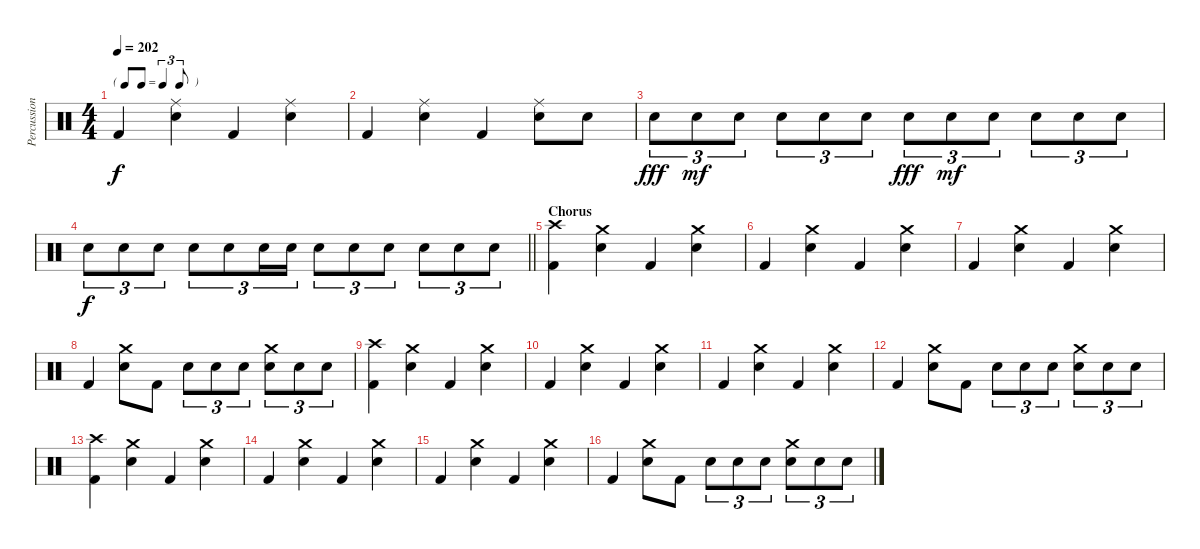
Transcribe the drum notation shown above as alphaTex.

\track ("Percussion" "Percussion") {instrument percussion}
\staff {score}
\articulation defaults
\ts (4 4)
\tf triplet8th
\tempo 202
\clef neutral
\ks c "Kick (hit) 2".4{dy f}
("Ride (middle)" "Electric Snare (hit)").4 "Kick (hit) 2".4 ("Ride (middle)" "Electric Snare (hit)").4 |
"Kick (hit) 2".4 ("Ride (middle)" "Electric Snare (hit)").4 "Kick (hit) 2".4 ("Ride (middle)" "Electric Snare (hit)").8 "Electric Snare (hit)".8 |
"Electric Snare (hit)".8{tu (3 2) dy fff} "Electric Snare (hit)".8{tu (3 2) dy mf} "Electric Snare (hit)".8{tu (3 2)} "Electric Snare (hit)".8{tu (3 2)} "Electric Snare (hit)".8{tu (3 2)} "Electric Snare (hit)".8{tu (3 2)} "Electric Snare (hit)".8{tu (3 2) dy fff} "Electric Snare (hit)".8{tu (3 2) dy mf} "Electric Snare (hit)".8{tu (3 2)} "Electric Snare (hit)".8{tu (3 2)} "Electric Snare (hit)".8{tu (3 2)} "Electric Snare (hit)".8{tu (3 2)} |
\barLineRight lightlight "Electric Snare (hit)".8{tu (3 2) dy f} "Electric Snare (hit)".8{tu (3 2)} "Electric Snare (hit)".8{tu (3 2)} "Electric Snare (hit)".8{tu (3 2)} "Electric Snare (hit)".8{tu (3 2)} "Electric Snare (hit)".16{tu (3 2)} "Electric Snare (hit)".16{tu (3 2)} "Electric Snare (hit)".8{tu (3 2)} "Electric Snare (hit)".8{tu (3 2)} "Electric Snare (hit)".8{tu (3 2)} "Electric Snare (hit)".8{tu (3 2)} "Electric Snare (hit)".8{tu (3 2)} "Electric Snare (hit)".8{tu (3 2)}
|
\section ("" "Chorus")
("Crash high (hit)" "Kick (hit) 2").4 ("Crash medium (hit)" "Electric Snare (hit)").4 "Kick (hit) 2".4 ("Crash medium (hit)" "Electric Snare (hit)").4 |
"Kick (hit) 2".4 ("Crash medium (hit)" "Electric Snare (hit)").4 "Kick (hit) 2".4 ("Crash medium (hit)" "Electric Snare (hit)").4 |
"Kick (hit) 2".4 ("Crash medium (hit)" "Electric Snare (hit)").4 "Kick (hit) 2".4 ("Crash medium (hit)" "Electric Snare (hit)").4 |
"Kick (hit) 2".4 ("Crash medium (hit)" "Electric Snare (hit)").8 "Kick (hit) 2".8 "Electric Snare (hit)".8{tu (3 2)} "Electric Snare (hit)".8{tu (3 2)} "Electric Snare (hit)".8{tu (3 2)} ("Crash medium (hit)" "Electric Snare (hit)").8{tu (3 2)} "Electric Snare (hit)".8{tu (3 2)} "Electric Snare (hit)".8{tu (3 2)} |
("Crash high (hit)" "Kick (hit) 2").4 ("Crash medium (hit)" "Electric Snare (hit)").4 "Kick (hit) 2".4 ("Crash medium (hit)" "Electric Snare (hit)").4 |
"Kick (hit) 2".4 ("Crash medium (hit)" "Electric Snare (hit)").4 "Kick (hit) 2".4 ("Crash medium (hit)" "Electric Snare (hit)").4 |
"Kick (hit) 2".4 ("Crash medium (hit)" "Electric Snare (hit)").4 "Kick (hit) 2".4 ("Crash medium (hit)" "Electric Snare (hit)").4 |
"Kick (hit) 2".4 ("Crash medium (hit)" "Electric Snare (hit)").8 "Kick (hit) 2".8 "Electric Snare (hit)".8{tu (3 2)} "Electric Snare (hit)".8{tu (3 2)} "Electric Snare (hit)".8{tu (3 2)} ("Crash medium (hit)" "Electric Snare (hit)").8{tu (3 2)} "Electric Snare (hit)".8{tu (3 2)} "Electric Snare (hit)".8{tu (3 2)} |
("Crash high (hit)" "Kick (hit) 2").4 ("Crash medium (hit)" "Electric Snare (hit)").4 "Kick (hit) 2".4 ("Crash medium (hit)" "Electric Snare (hit)").4 |
"Kick (hit) 2".4 ("Crash medium (hit)" "Electric Snare (hit)").4 "Kick (hit) 2".4 ("Crash medium (hit)" "Electric Snare (hit)").4 |
"Kick (hit) 2".4 ("Crash medium (hit)" "Electric Snare (hit)").4 "Kick (hit) 2".4 ("Crash medium (hit)" "Electric Snare (hit)").4 |
"Kick (hit) 2".4 ("Crash medium (hit)" "Electric Snare (hit)").8 "Kick (hit) 2".8 "Electric Snare (hit)".8{tu (3 2)} "Electric Snare (hit)".8{tu (3 2)} "Electric Snare (hit)".8{tu (3 2)} ("Crash medium (hit)" "Electric Snare (hit)").8{tu (3 2)} "Electric Snare (hit)".8{tu (3 2)} "Electric Snare (hit)".8{tu (3 2)}
